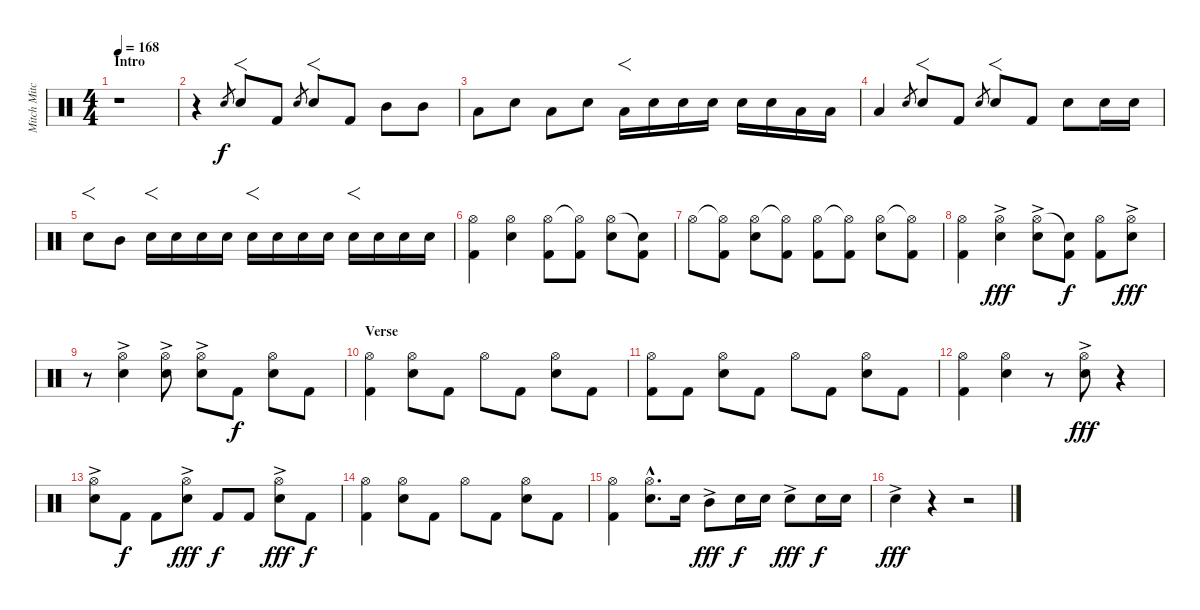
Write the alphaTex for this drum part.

\track ("Mitch Mitchell" "Mitch Mitc") {instrument percussion}
\staff {score}
\articulation defaults
\ts (4 4)
\section ("" "Intro")
\tempo 168
\clef neutral
\ks c
r.1{dy f} |
r.4 "Snare (hit) 2".8{gr} "Snare (hit) 2".8{f} "Kick (hit) 2".8 "Snare (hit) 2".8{gr} "Snare (hit) 2".8{f} "Kick (hit) 2".8 "Mid Tom (hit)".8 "Mid Tom (hit)".8 |
"Low Tom (hit)".8 "Snare (hit) 2".8 "Low Tom (hit)".8 "Snare (hit) 2".8 "Low Tom (hit)".16{f} "Snare (hit) 2".16 "Snare (hit) 2".16 "Snare (hit) 2".16 "Snare (hit) 2".16 "Snare (hit) 2".16 "Low Tom (hit)".16 "Low Tom (hit)".16 |
"Low Tom (hit)".4 "Snare (hit) 2".8{gr} "Snare (hit) 2".8{f} "Kick (hit) 2".8 "Snare (hit) 2".8{gr} "Snare (hit) 2".8{f} "Kick (hit) 2".8 "Snare (hit) 2".8 "Snare (hit) 2".16 "Snare (hit) 2".16 |
"Snare (hit) 2".8{f} "Mid Tom (hit)".8 "Snare (hit) 2".16{f} "Snare (hit) 2".16 "Snare (hit) 2".16 "Snare (hit) 2".16 "Snare (hit) 2".16{f} "Snare (hit) 2".16 "Snare (hit) 2".16 "Snare (hit) 2".16 "Snare (hit) 2".16{f} "Snare (hit) 2".16 "Snare (hit) 2".16 "Snare (hit) 2".16 |
("Hi-Hat (open)" "Kick (hit) 2").4 ("Hi-Hat (open)" "Snare (hit) 2").4 ("Hi-Hat (open)" "Kick (hit) 2").8 ("Hi-Hat (open)"{t} "Kick (hit) 2").8 ("Hi-Hat (open)" "Snare (hit) 2").8 ("Snare (hit)"{t} "Kick (hit) 2").8 |
"Hi-Hat (open)".8 ("Hi-Hat (open)"{t} "Kick (hit) 2").8 ("Hi-Hat (open)" "Snare (hit) 2").8 ("Hi-Hat (open)"{t} "Kick (hit) 2").8 ("Hi-Hat (open)" "Kick (hit) 2").8 ("Hi-Hat (open)"{t} "Kick (hit) 2").8 ("Hi-Hat (open)" "Snare (hit) 2").8 ("Hi-Hat (open)"{t} "Kick (hit) 2").8 |
("Hi-Hat (open)" "Kick (hit) 2").4 ("Hi-Hat (open)"{ac} "Snare (hit) 2"{ac}).4{dy fff} ("Hi-Hat (open)"{ac} "Snare (hit) 2"{ac}).8 ("Snare (hit)"{t} "Kick (hit) 2").8{dy f} ("Hi-Hat (open)" "Kick (hit) 2").8 ("Hi-Hat (open)" "Snare (hit) 2"{ac}).8{dy fff} |
r.8 ("Hi-Hat (open)"{ac} "Snare (hit) 2"{ac}).4 ("Hi-Hat (open)"{ac} "Snare (hit) 2"{ac}).8 ("Hi-Hat (open)"{ac} "Snare (hit) 2"{ac}).8 "Kick (hit) 2".8{dy f} ("Hi-Hat (open)" "Snare (hit) 2").8 "Kick (hit) 2".8 |
\section ("" "Verse")
("Hi-Hat (open)" "Kick (hit) 2").4 ("Hi-Hat (open)" "Snare (hit) 2").8 "Kick (hit) 2".8 "Hi-Hat (open)".8 "Kick (hit) 2".8 ("Hi-Hat (open)" "Snare (hit) 2").8 "Kick (hit) 2".8 |
("Hi-Hat (open)" "Kick (hit) 2").8 "Kick (hit) 2".8 ("Hi-Hat (open)" "Snare (hit) 2").8 "Kick (hit) 2".8 "Hi-Hat (open)".8 "Kick (hit) 2".8 ("Hi-Hat (open)" "Snare (hit) 2").8 "Kick (hit) 2".8 |
("Hi-Hat (open)" "Kick (hit) 2").4 ("Hi-Hat (open)" "Snare (hit) 2").4 r.8 ("Hi-Hat (open)"{ac} "Snare (hit) 2"{ac}).8{dy fff} r.4 |
("Hi-Hat (open)"{ac} "Snare (hit) 2"{ac}).8 "Kick (hit) 2".8{dy f} "Kick (hit) 2".8 ("Hi-Hat (open)"{ac} "Snare (hit) 2"{ac}).8{dy fff} "Kick (hit) 2".8{dy f} "Kick (hit) 2".8 ("Hi-Hat (open)"{ac} "Snare (hit) 2"{ac}).8{dy fff} "Kick (hit) 2".8{dy f} |
("Hi-Hat (open)" "Kick (hit) 2").4 ("Hi-Hat (open)" "Snare (hit) 2").8 "Kick (hit) 2".8 "Hi-Hat (open)".8 "Kick (hit) 2".8 ("Hi-Hat (open)" "Snare (hit) 2").8 "Kick (hit) 2".8 |
("Hi-Hat (open)" "Kick (hit) 2").4 ("Hi-Hat (open)"{hac} "Snare (hit) 2"{hac}).8{d} "Snare (hit) 2".16 "Mid Tom (hit)"{ac}.8{dy fff} "Snare (hit) 2".16{dy f} "Snare (hit) 2".16 "Snare (hit) 2"{ac}.8{dy fff} "Snare (hit) 2".16{dy f} "Snare (hit) 2".16 |
"Snare (hit) 2"{ac}.4{dy fff} r.4 r.2
